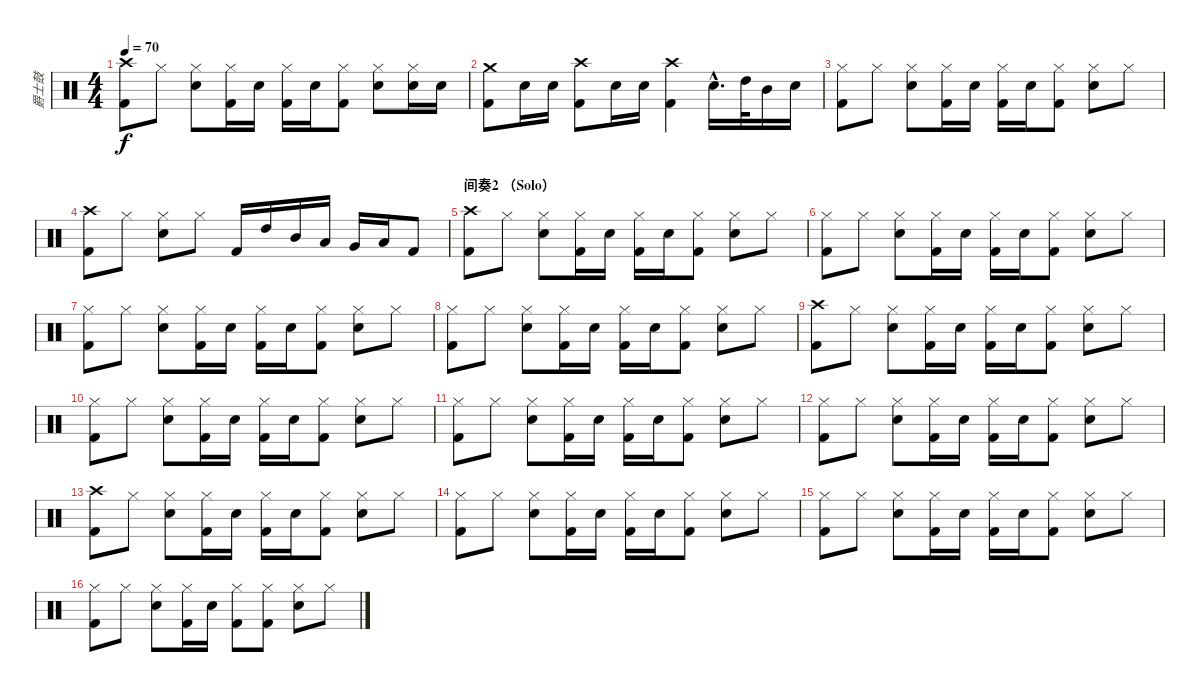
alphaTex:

\track ("爵士鼓" "爵士鼓") {instrument percussion}
\staff {score}
\articulation defaults
\ts (4 4)
\tempo 70
\clef neutral
\ks c
("Crash high (hit)" "Kick (hit) 2").8{dy f} "Hi-Hat (closed)".8 ("Hi-Hat (closed)" "Electric Snare (hit)").8 ("Hi-Hat (closed)" "Kick (hit) 2").16 "Electric Snare (hit)".16 ("Hi-Hat (closed)" "Kick (hit) 2").16 "Electric Snare (hit)".16 ("Hi-Hat (closed)" "Kick (hit) 2").8 ("Hi-Hat (closed)" "Electric Snare (hit)").8 ("Hi-Hat (closed)" "Electric Snare (hit)").16 "Electric Snare (hit)".16 |
("Crash medium (hit)" "Kick (hit) 2").8 "Electric Snare (hit)".16 "Electric Snare (hit)".16 ("Crash high (hit)" "Kick (hit) 2").8 "Electric Snare (hit)".16 "Electric Snare (hit)".16 ("Crash high (hit)" "Kick (hit) 2").4 "Electric Snare (hit)"{hac}.16{d} "High Tom (hit)".32 "Mid Tom (hit)".16 "Electric Snare (hit)".16 |
("Hi-Hat (closed)" "Kick (hit) 2").8 "Hi-Hat (closed)".8 ("Hi-Hat (closed)" "Electric Snare (hit)").8 ("Hi-Hat (closed)" "Kick (hit) 2").16 "Electric Snare (hit)".16 ("Hi-Hat (closed)" "Kick (hit) 2").16 "Electric Snare (hit)".16 ("Hi-Hat (closed)" "Kick (hit) 2").8 ("Hi-Hat (closed)" "Electric Snare (hit)").8 "Hi-Hat (closed)".8 |
("Crash high (hit)" "Kick (hit) 2").8 "Hi-Hat (closed)".8 ("Hi-Hat (closed)" "Electric Snare (hit)").8 "Hi-Hat (closed)".8 "Kick (hit) 2".16 "High Tom (hit)".16 "Mid Tom (hit)".16 "Low Tom (hit)".16 "Very Low Tom (hit)".16 "Low Floor Tom (hit)".16 "Kick (hit) 2".8 |
\section ("" "间奏2 （Solo）")
("Crash high (hit)" "Kick (hit) 2").8 "Hi-Hat (closed)".8 ("Hi-Hat (closed)" "Electric Snare (hit)").8 ("Hi-Hat (closed)" "Kick (hit) 2").16 "Electric Snare (hit)".16 ("Hi-Hat (closed)" "Kick (hit) 2").16 "Electric Snare (hit)".16 ("Hi-Hat (closed)" "Kick (hit) 2").8 ("Hi-Hat (closed)" "Electric Snare (hit)").8 "Hi-Hat (closed)".8 |
("Hi-Hat (closed)" "Kick (hit) 2").8 "Hi-Hat (closed)".8 ("Hi-Hat (closed)" "Electric Snare (hit)").8 ("Hi-Hat (closed)" "Kick (hit) 2").16 "Electric Snare (hit)".16 ("Hi-Hat (closed)" "Kick (hit) 2").16 "Electric Snare (hit)".16 ("Hi-Hat (closed)" "Kick (hit) 2").8 ("Hi-Hat (closed)" "Electric Snare (hit)").8 "Hi-Hat (closed)".8 |
("Hi-Hat (closed)" "Kick (hit) 2").8 "Hi-Hat (closed)".8 ("Hi-Hat (closed)" "Electric Snare (hit)").8 ("Hi-Hat (closed)" "Kick (hit) 2").16 "Electric Snare (hit)".16 ("Hi-Hat (closed)" "Kick (hit) 2").16 "Electric Snare (hit)".16 ("Hi-Hat (closed)" "Kick (hit) 2").8 ("Hi-Hat (closed)" "Electric Snare (hit)").8 "Hi-Hat (closed)".8 |
("Hi-Hat (closed)" "Kick (hit) 2").8 "Hi-Hat (closed)".8 ("Hi-Hat (closed)" "Electric Snare (hit)").8 ("Hi-Hat (closed)" "Kick (hit) 2").16 "Electric Snare (hit)".16 ("Hi-Hat (closed)" "Kick (hit) 2").16 "Electric Snare (hit)".16 ("Hi-Hat (closed)" "Kick (hit) 2").8 ("Hi-Hat (closed)" "Electric Snare (hit)").8 "Hi-Hat (closed)".8 |
("Crash high (hit)" "Kick (hit) 2").8 "Hi-Hat (closed)".8 ("Hi-Hat (closed)" "Electric Snare (hit)").8 ("Hi-Hat (closed)" "Kick (hit) 2").16 "Electric Snare (hit)".16 ("Hi-Hat (closed)" "Kick (hit) 2").16 "Electric Snare (hit)".16 ("Hi-Hat (closed)" "Kick (hit) 2").8 ("Hi-Hat (closed)" "Electric Snare (hit)").8 "Hi-Hat (closed)".8 |
("Hi-Hat (closed)" "Kick (hit) 2").8 "Hi-Hat (closed)".8 ("Hi-Hat (closed)" "Electric Snare (hit)").8 ("Hi-Hat (closed)" "Kick (hit) 2").16 "Electric Snare (hit)".16 ("Hi-Hat (closed)" "Kick (hit) 2").16 "Electric Snare (hit)".16 ("Hi-Hat (closed)" "Kick (hit) 2").8 ("Hi-Hat (closed)" "Electric Snare (hit)").8 "Hi-Hat (closed)".8 |
("Hi-Hat (closed)" "Kick (hit) 2").8 "Hi-Hat (closed)".8 ("Hi-Hat (closed)" "Electric Snare (hit)").8 ("Hi-Hat (closed)" "Kick (hit) 2").16 "Electric Snare (hit)".16 ("Hi-Hat (closed)" "Kick (hit) 2").16 "Electric Snare (hit)".16 ("Hi-Hat (closed)" "Kick (hit) 2").8 ("Hi-Hat (closed)" "Electric Snare (hit)").8 "Hi-Hat (closed)".8 |
("Hi-Hat (closed)" "Kick (hit) 2").8 "Hi-Hat (closed)".8 ("Hi-Hat (closed)" "Electric Snare (hit)").8 ("Hi-Hat (closed)" "Kick (hit) 2").16 "Electric Snare (hit)".16 ("Hi-Hat (closed)" "Kick (hit) 2").16 "Electric Snare (hit)".16 ("Hi-Hat (closed)" "Kick (hit) 2").8 ("Hi-Hat (closed)" "Electric Snare (hit)").8 "Hi-Hat (closed)".8 |
("Crash high (hit)" "Kick (hit) 2").8 "Hi-Hat (closed)".8 ("Hi-Hat (closed)" "Electric Snare (hit)").8 ("Hi-Hat (closed)" "Kick (hit) 2").16 "Electric Snare (hit)".16 ("Hi-Hat (closed)" "Kick (hit) 2").16 "Electric Snare (hit)".16 ("Hi-Hat (closed)" "Kick (hit) 2").8 ("Hi-Hat (closed)" "Electric Snare (hit)").8 "Hi-Hat (closed)".8 |
("Hi-Hat (closed)" "Kick (hit) 2").8 "Hi-Hat (closed)".8 ("Hi-Hat (closed)" "Electric Snare (hit)").8 ("Hi-Hat (closed)" "Kick (hit) 2").16 "Electric Snare (hit)".16 ("Hi-Hat (closed)" "Kick (hit) 2").16 "Electric Snare (hit)".16 ("Hi-Hat (closed)" "Kick (hit) 2").8 ("Hi-Hat (closed)" "Electric Snare (hit)").8 "Hi-Hat (closed)".8 |
("Hi-Hat (closed)" "Kick (hit) 2").8 "Hi-Hat (closed)".8 ("Hi-Hat (closed)" "Electric Snare (hit)").8 ("Hi-Hat (closed)" "Kick (hit) 2").16 "Electric Snare (hit)".16 ("Hi-Hat (closed)" "Kick (hit) 2").16 "Electric Snare (hit)".16 ("Hi-Hat (closed)" "Kick (hit) 2").8 ("Hi-Hat (closed)" "Electric Snare (hit)").8 "Hi-Hat (closed)".8 |
("Hi-Hat (closed)" "Kick (hit) 2").8 "Hi-Hat (closed)".8 ("Hi-Hat (closed)" "Electric Snare (hit)").8 ("Hi-Hat (closed)" "Kick (hit) 2").16 "Electric Snare (hit)".16 ("Hi-Hat (closed)" "Kick (hit) 2").8 ("Hi-Hat (closed)" "Kick (hit) 2").8 ("Hi-Hat (closed)" "Electric Snare (hit)").8 "Hi-Hat (closed)".8
